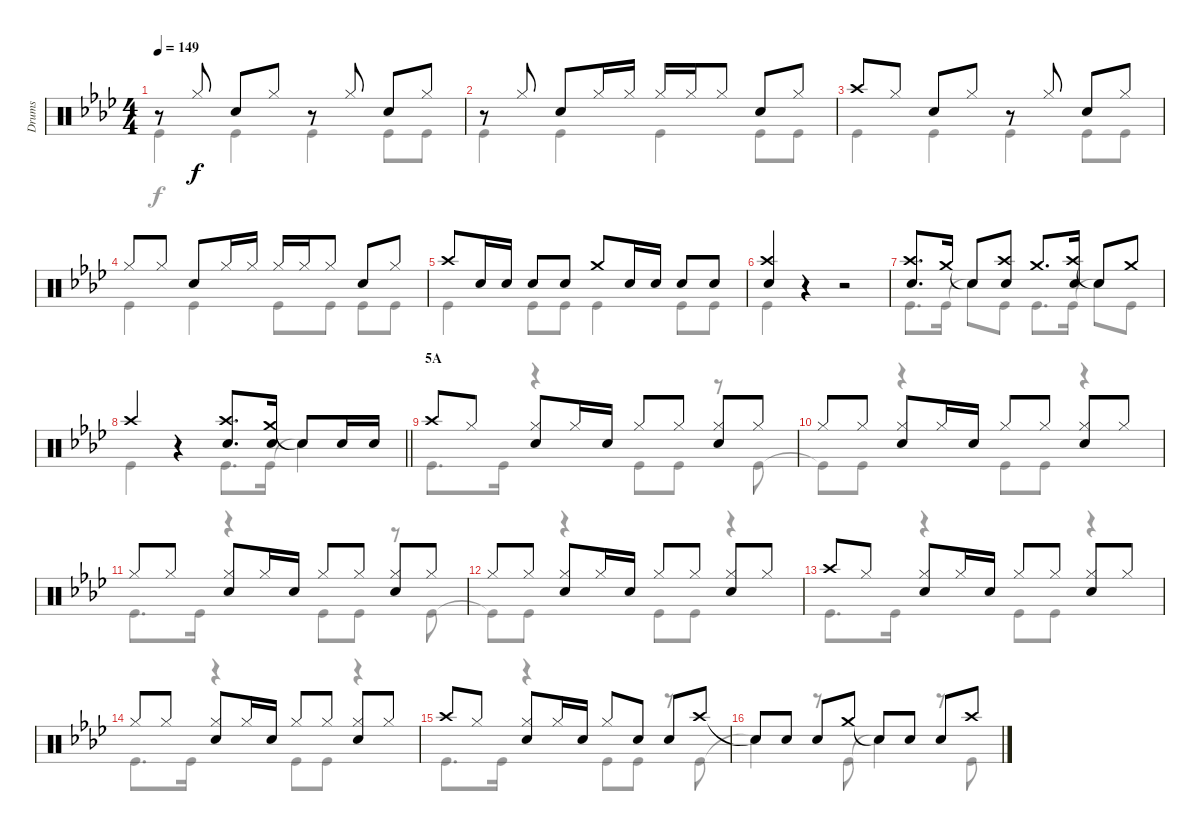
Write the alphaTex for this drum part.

\track ("Drums" "Drums") {instrument percussion}
\staff {score}
\articulation defaults
\voice
\ts (4 4)
\tempo 149
\clef neutral
\ks ab
r.8{dy f} "Hi-Hat (closed)".8 "Snare (hit) 2".8 "Hi-Hat (closed)".8 r.8 "Hi-Hat (closed)".8 "Snare (hit) 2".8 "Hi-Hat (closed)".8 |
r.8 "Hi-Hat (closed)".8 "Snare (hit) 2".8 "Hi-Hat (closed)".16 "Hi-Hat (closed)".16 "Hi-Hat (closed)".16 "Hi-Hat (closed)".16 "Hi-Hat (closed)".8 "Snare (hit) 2".8 "Hi-Hat (closed)".8 |
"Crash high (hit)".8 "Hi-Hat (closed)".8 "Snare (hit) 2".8 "Hi-Hat (closed)".8 r.8 "Hi-Hat (closed)".8 "Snare (hit) 2".8 "Hi-Hat (closed)".8 |
"Hi-Hat (closed)".8 "Hi-Hat (closed)".8 "Snare (hit) 2".8 "Hi-Hat (closed)".16 "Hi-Hat (closed)".16 "Hi-Hat (closed)".16 "Hi-Hat (closed)".16 "Hi-Hat (closed)".8 "Snare (hit) 2".8 "Hi-Hat (closed)".8 |
"Crash high (hit)".8 "Snare (hit) 2".16 "Snare (hit) 2".16 "Snare (hit) 2".8 "Snare (hit) 2".8 "Crash medium (hit)".8 "Snare (hit) 2".16 "Snare (hit) 2".16 "Snare (hit) 2".8 "Snare (hit) 2".8 |
("Crash high (hit)" "Snare (hit) 2").4 r.4 r.2 |
("Crash high (hit)" "Snare (hit) 2").8{d} "Crash medium (hit)".16 "Snare (hit)"{t}.8 ("Crash high (hit)" "Snare (hit) 2").8 "Crash medium (hit)".8{d} ("Crash high (hit)" "Snare (hit) 2").16 "Snare (hit)"{t}.8 "Crash medium (hit)".8 |
\barLineRight lightlight "Crash high (hit)".4
r.4 ("Crash high (hit)" "Snare (hit) 2").8{d} ("Crash medium (hit)" "Snare (hit) 2").16 "Snare (hit)"{t}.8 "Snare (hit) 2".16 "Snare (hit) 2".16 |
\section ("" "5A")
"Crash high (hit)".8 "Hi-Hat (closed)".8 ("Hi-Hat (closed)" "Snare (hit) 2").8 "Hi-Hat (closed)".16 "Snare (hit) 2".16 "Hi-Hat (closed)".8 "Hi-Hat (closed)".8 ("Hi-Hat (closed)" "Snare (hit) 2").8 "Hi-Hat (closed)".8 |
"Hi-Hat (closed)".8 "Hi-Hat (closed)".8 ("Hi-Hat (closed)" "Snare (hit) 2").8 "Hi-Hat (closed)".16 "Snare (hit) 2".16 "Hi-Hat (closed)".8 "Hi-Hat (closed)".8 ("Hi-Hat (closed)" "Snare (hit) 2").8 "Hi-Hat (closed)".8 |
"Hi-Hat (closed)".8 "Hi-Hat (closed)".8 ("Hi-Hat (closed)" "Snare (hit) 2").8 "Hi-Hat (closed)".16 "Snare (hit) 2".16 "Hi-Hat (closed)".8 "Hi-Hat (closed)".8 ("Hi-Hat (closed)" "Snare (hit) 2").8 "Hi-Hat (closed)".8 |
"Hi-Hat (closed)".8 "Hi-Hat (closed)".8 ("Hi-Hat (closed)" "Snare (hit) 2").8 "Hi-Hat (closed)".16 "Snare (hit) 2".16 "Hi-Hat (closed)".8 "Hi-Hat (closed)".8 ("Hi-Hat (closed)" "Snare (hit) 2").8 "Hi-Hat (closed)".8 |
"Crash high (hit)".8 "Hi-Hat (closed)".8 ("Hi-Hat (closed)" "Snare (hit) 2").8 "Hi-Hat (closed)".16 "Snare (hit) 2".16 "Hi-Hat (closed)".8 "Hi-Hat (closed)".8 ("Hi-Hat (closed)" "Snare (hit) 2").8 "Hi-Hat (closed)".8 |
"Hi-Hat (closed)".8 "Hi-Hat (closed)".8 ("Hi-Hat (closed)" "Snare (hit) 2").8 "Hi-Hat (closed)".16 "Snare (hit) 2".16 "Hi-Hat (closed)".8 "Hi-Hat (closed)".8 ("Hi-Hat (closed)" "Snare (hit) 2").8 "Hi-Hat (closed)".8 |
"Crash high (hit)".8 "Hi-Hat (closed)".8 ("Hi-Hat (closed)" "Snare (hit) 2").8 "Hi-Hat (closed)".16 "Snare (hit) 2".16 "Hi-Hat (closed)".8 "Snare (hit) 2".8 "Snare (hit) 2".8 "Crash high (hit)".8 |
"Snare (hit)"{t}.8 "Snare (hit) 2".8 "Snare (hit) 2".8 "Crash medium (hit)".8 "Snare (hit)"{t}.8 "Snare (hit) 2".8 "Snare (hit) 2".8 "Crash high (hit)".8
\voice
\clef neutral
\ottava regular
\simile none
\ks ab "Kick (hit)".4{dy f} "Kick (hit)".4 "Kick (hit)".4 "Kick (hit)".8 "Kick (hit)".8
|
"Kick (hit)".4 "Kick (hit)".4 "Kick (hit)".4 "Kick (hit)".8 "Kick (hit)".8 |
"Kick (hit)".4 "Kick (hit)".4 "Kick (hit)".4 "Kick (hit)".8 "Kick (hit)".8 |
"Kick (hit)".4 "Kick (hit)".4 "Kick (hit)".8 "Kick (hit)".8 "Kick (hit)".8 "Kick (hit)".8 |
"Kick (hit)".4 "Kick (hit)".8 "Kick (hit)".8 "Kick (hit)".4 "Kick (hit)".8 "Kick (hit)".8 |
"Kick (hit)".4 r.4 r.2 |
"Kick (hit)".8{d} "Kick (hit)".16 "Snare (hit)"{t}.8 "Kick (hit)".8 "Kick (hit)".8{d} "Kick (hit)".16 "Snare (hit)"{t}.8 "Kick (hit)".8 |
\barLineRight lightlight "Kick (hit)".4
r.4 "Kick (hit)".8{d} "Kick (hit)".16 "Snare (hit)"{t}.4 |
"Kick (hit)".8{d} "Kick (hit)".16 r.4 "Kick (hit)".8 "Kick (hit)".8 r.8 "Kick (hit)".8 |
"Kick (hit)"{t}.8 "Kick (hit)".8 r.4 "Kick (hit)".8 "Kick (hit)".8 r.4 |
"Kick (hit)".8{d} "Kick (hit)".16 r.4 "Kick (hit)".8 "Kick (hit)".8 r.8 "Kick (hit)".8 |
"Kick (hit)"{t}.8 "Kick (hit)".8 r.4 "Kick (hit)".8 "Kick (hit)".8 r.4 |
"Kick (hit)".8{d} "Kick (hit)".16 r.4 "Kick (hit)".8 "Kick (hit)".8 r.4 |
"Kick (hit)".8{d} "Kick (hit)".16 r.4 "Kick (hit)".8 "Kick (hit)".8 r.4 |
"Kick (hit)".8{d} "Kick (hit)".16 r.4 "Kick (hit)".8 "Kick (hit)".8 r.8 "Kick (hit)".8 |
"Snare (hit)"{t}.4 r.8 "Kick (hit)".8 "Snare (hit)"{t}.4 r.8 "Kick (hit)".8
